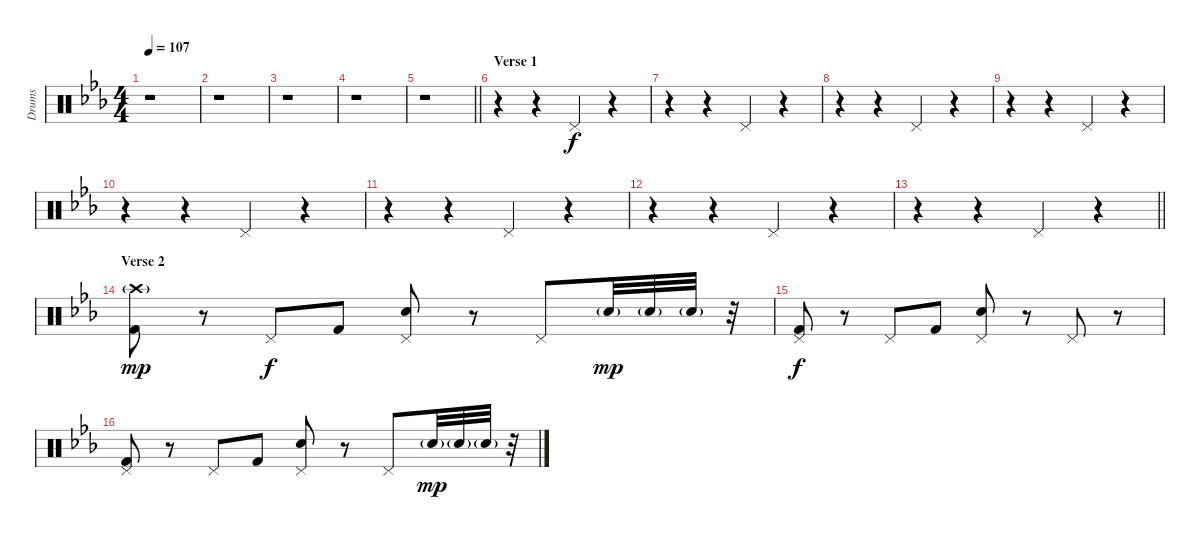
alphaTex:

\track ("Drums" "Drums") {instrument percussion}
\staff {score}
\articulation defaults
\ts (4 4)
\tempo 107
\clef neutral
\ks cminor
r.1{dy f} |
r.1 |
r.1 |
r.1 |
\barLineRight lightlight
r.1 |
\section ("" "Verse 1")
r.4 r.4 "Pedal Hi-Hat (hit)".4 r.4 |
r.4 r.4 "Pedal Hi-Hat (hit)".4 r.4 |
r.4 r.4 "Pedal Hi-Hat (hit)".4 r.4 |
r.4 r.4 "Pedal Hi-Hat (hit)".4 r.4 |
r.4 r.4 "Pedal Hi-Hat (hit)".4 r.4 |
r.4 r.4 "Pedal Hi-Hat (hit)".4 r.4 |
r.4 r.4 "Pedal Hi-Hat (hit)".4 r.4 |
\barLineRight lightlight
r.4 r.4 "Pedal Hi-Hat (hit)".4 r.4 |
\section ("" "Verse 2")
("Crash high (hit)"{g} "Kick (hit) 2").8{dy mp} r.8 "Pedal Hi-Hat (hit)".8{dy f} "Kick (hit) 2".8 ("Pedal Hi-Hat (hit)" "Electric Snare (hit)").8 r.8 "Pedal Hi-Hat (hit)".8 "Electric Snare (hit)"{g}.32{dy mp} "Electric Snare (hit)"{g}.32 "Electric Snare (hit)"{g}.32 r.32 |
("Pedal Hi-Hat (hit)" "Kick (hit) 2").8{dy f} r.8 "Pedal Hi-Hat (hit)".8 "Kick (hit) 2".8 ("Pedal Hi-Hat (hit)" "Electric Snare (hit)").8 r.8 "Pedal Hi-Hat (hit)".8 r.8 |
("Pedal Hi-Hat (hit)" "Kick (hit) 2").8 r.8 "Pedal Hi-Hat (hit)".8 "Kick (hit) 2".8 ("Pedal Hi-Hat (hit)" "Electric Snare (hit)").8 r.8 "Pedal Hi-Hat (hit)".8 "Electric Snare (hit)"{g}.32{dy mp} "Electric Snare (hit)"{g}.32 "Electric Snare (hit)"{g}.32 r.32
